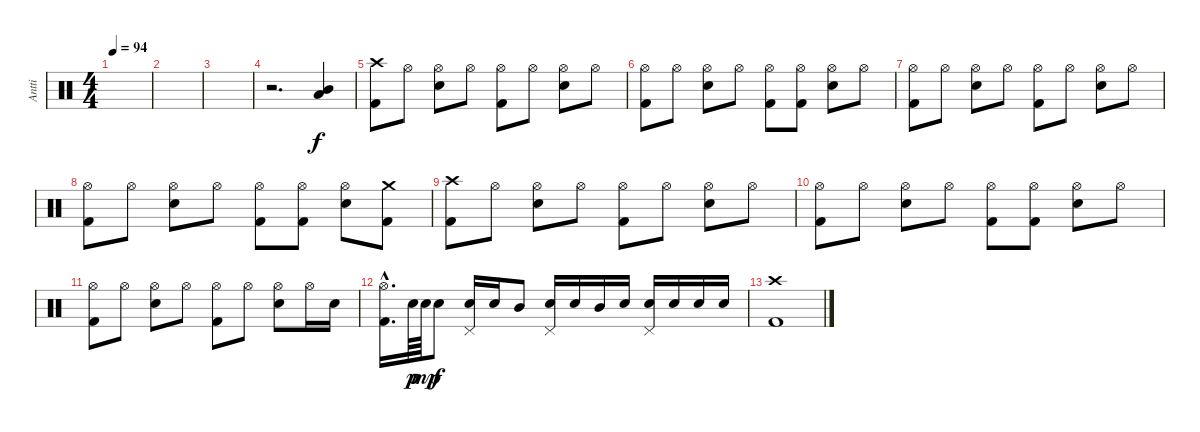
\track ("Antti" "Antti") {instrument percussion}
\staff {score}
\articulation defaults
\ts (4 4)
\tempo 94
\clef neutral
\ks c
|
|
|
r.2{d} ("Mid Tom (hit)" "Low Tom (hit)").4 |
("Crash high (hit)" "Kick (hit) 2").8{dy f} "Hi-Hat (open)".8 ("Hi-Hat (open)" "Electric Snare (hit)").8 "Hi-Hat (open)".8 ("Hi-Hat (open)" "Kick (hit) 2").8 "Hi-Hat (open)".8 ("Hi-Hat (open)" "Electric Snare (hit)").8 "Hi-Hat (open)".8 |
("Hi-Hat (open)" "Kick (hit) 2").8 "Hi-Hat (open)".8 ("Hi-Hat (open)" "Electric Snare (hit)").8 "Hi-Hat (open)".8 ("Hi-Hat (open)" "Kick (hit) 2").8 ("Hi-Hat (open)" "Kick (hit) 2").8 ("Hi-Hat (open)" "Electric Snare (hit)").8 "Hi-Hat (open)".8 |
("Hi-Hat (open)" "Kick (hit) 2").8 "Hi-Hat (open)".8 ("Hi-Hat (open)" "Electric Snare (hit)").8 "Hi-Hat (open)".8 ("Hi-Hat (open)" "Kick (hit) 2").8 "Hi-Hat (open)".8 ("Hi-Hat (open)" "Electric Snare (hit)").8 "Hi-Hat (open)".8 |
("Hi-Hat (open)" "Kick (hit) 2").8 "Hi-Hat (open)".8 ("Hi-Hat (open)" "Electric Snare (hit)").8 "Hi-Hat (open)".8 ("Hi-Hat (open)" "Kick (hit) 2").8 ("Hi-Hat (open)" "Kick (hit) 2").8 ("Hi-Hat (open)" "Electric Snare (hit)").8 ("Crash medium (hit)" "Kick (hit) 2").8 |
("Crash high (hit)" "Kick (hit) 2").8 "Hi-Hat (open)".8 ("Hi-Hat (open)" "Electric Snare (hit)").8 "Hi-Hat (open)".8 ("Hi-Hat (open)" "Kick (hit) 2").8 "Hi-Hat (open)".8 ("Hi-Hat (open)" "Electric Snare (hit)").8 "Hi-Hat (open)".8 |
("Hi-Hat (open)" "Kick (hit) 2").8 "Hi-Hat (open)".8 ("Hi-Hat (open)" "Electric Snare (hit)").8 "Hi-Hat (open)".8 ("Hi-Hat (open)" "Kick (hit) 2").8 ("Hi-Hat (open)" "Kick (hit) 2").8 ("Hi-Hat (open)" "Electric Snare (hit)").8 "Hi-Hat (open)".8 |
("Hi-Hat (open)" "Kick (hit) 2").8 "Hi-Hat (open)".8 ("Hi-Hat (open)" "Electric Snare (hit)").8 "Hi-Hat (open)".8 ("Hi-Hat (open)" "Kick (hit) 2").8 "Hi-Hat (open)".8 ("Hi-Hat (open)" "Electric Snare (hit)").8 "Hi-Hat (open)".16 "Electric Snare (hit)".16 |
("Hi-Hat (open)"{hac} "Kick (hit) 2"{hac}).16{d} "Electric Snare (hit)".64{dy p} "Electric Snare (hit)".64{dy mp} "Electric Snare (hit)".8{dy f} ("Pedal Hi-Hat (hit)" "Electric Snare (hit)").16 "Electric Snare (hit)".16 "Mid Tom (hit)".8 ("Pedal Hi-Hat (hit)" "Electric Snare (hit)").16 "Electric Snare (hit)".16 "Mid Tom (hit)".16 "Electric Snare (hit)".16 ("Pedal Hi-Hat (hit)" "Electric Snare (hit)").16 "Electric Snare (hit)".16 "Electric Snare (hit)".16 "Electric Snare (hit)".16 |
("Crash high (hit)" "Kick (hit) 2").1
